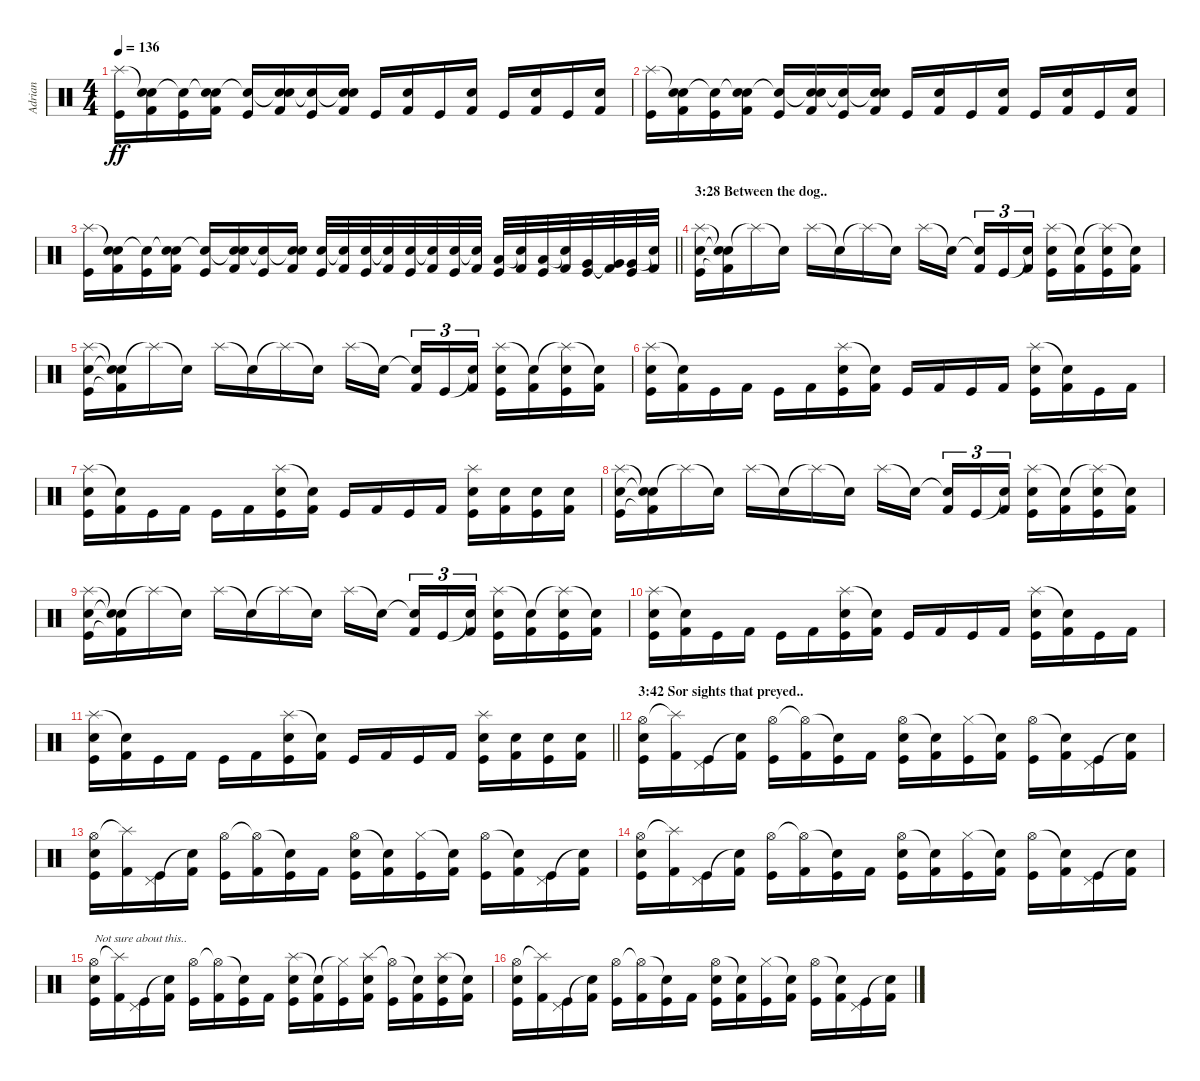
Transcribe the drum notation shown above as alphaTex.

\track ("Adrian" "Adrian") {instrument percussion}
\staff {score}
\articulation defaults
\ts (4 4)
\tempo 136
\clef neutral
\ks c
("Splash (hit)" "Kick (hit)").16{dy ff} ("Snare (hit)"{t} "Electric Snare (hit)" "Kick (hit) 2").16 ("Snare (hit)"{t} "Kick (hit)").16 ("Snare (hit)"{t} "Electric Snare (hit)" "Kick (hit) 2").16 ("Snare (hit)"{t} "Kick (hit)").16 ("Snare (hit)"{t} "Electric Snare (hit)" "Kick (hit) 2").16 ("Snare (hit)"{t} "Kick (hit)").16 ("Snare (hit)"{t} "Electric Snare (hit)" "Kick (hit) 2").16 "Kick (hit)".16 ("Electric Snare (hit)" "Kick (hit) 2").16 "Kick (hit)".16 ("Electric Snare (hit)" "Kick (hit) 2").16 "Kick (hit)".16 ("Electric Snare (hit)" "Kick (hit) 2").16 "Kick (hit)".16 ("Electric Snare (hit)" "Kick (hit) 2").16 |
("Splash (hit)" "Kick (hit)").16 ("Snare (hit)"{t} "Electric Snare (hit)" "Kick (hit) 2").16 ("Snare (hit)"{t} "Kick (hit)").16 ("Snare (hit)"{t} "Electric Snare (hit)" "Kick (hit) 2").16 ("Snare (hit)"{t} "Kick (hit)").16 ("Snare (hit)"{t} "Electric Snare (hit)" "Kick (hit) 2").16 ("Snare (hit)"{t} "Kick (hit)").16 ("Snare (hit)"{t} "Electric Snare (hit)" "Kick (hit) 2").16 "Kick (hit)".16 ("Electric Snare (hit)" "Kick (hit) 2").16 "Kick (hit)".16 ("Electric Snare (hit)" "Kick (hit) 2").16 "Kick (hit)".16 ("Electric Snare (hit)" "Kick (hit) 2").16 "Kick (hit)".16 ("Electric Snare (hit)" "Kick (hit) 2").16 |
\barLineRight lightlight
("Splash (hit)" "Kick (hit)").16 ("Snare (hit)"{t} "Electric Snare (hit)" "Kick (hit) 2").16 ("Snare (hit)"{t} "Kick (hit)").16 ("Snare (hit)"{t} "Electric Snare (hit)" "Kick (hit) 2").16 ("Snare (hit)"{t} "Kick (hit)").16 ("Snare (hit)"{t} "Electric Snare (hit)" "Kick (hit) 2").16 ("Snare (hit)"{t} "Kick (hit)").16 ("Snare (hit)"{t} "Electric Snare (hit)" "Kick (hit) 2").16 ("Electric Snare (hit)" "Kick (hit)").32 ("Electric Snare (hit)"{t} "Kick (hit) 2").32 ("Electric Snare (hit)" "Kick (hit)").32 ("Snare (hit)"{t} "Kick (hit) 2").32 ("Electric Snare (hit)" "Kick (hit)").32 ("Snare (hit)"{t} "Kick (hit) 2").32 ("Electric Snare (hit)" "Kick (hit)").32 ("Snare (hit)"{t} "Kick (hit) 2").32 ("Low Tom (hit)" "Kick (hit)").32 ("Snare (hit)"{t} "Kick (hit) 2").32 ("Low Tom (hit)" "Kick (hit)").32 ("Snare (hit)"{t} "Kick (hit) 2").32 ("Very Low Tom (hit)" "Kick (hit)").32 ("Very Low Tom (hit)"{t} "Kick (hit) 2").32 ("Very Low Tom (hit)" "Kick (hit)").32 ("Snare (hit)"{t} "Kick (hit) 2").32 |
\section ("" "3:28 Between the dog..")
("Splash (hit)" "Electric Snare (hit)" "Kick (hit)").16 ("Snare (hit)"{t} "Snare (hit)"{t} "Kick (hit) 2"{t}).16 "Splash (hit)"{t}.16 "Snare (hit)"{t}.16 "Splash (hit)".16 "Snare (hit)"{t}.16 "Splash (hit)"{t}.16 "Snare (hit)"{t}.16 "Splash (hit)".16 "Snare (hit)"{t}.16{beam splitsecondary} ("Snare (hit)"{t} "Kick (hit) 2").16{tu (3 2)} "Kick (hit)".16{tu (3 2)} ("Snare (hit)"{t} "Kick (hit) 2").16{tu (3 2)} ("Splash (hit)" "Electric Snare (hit)" "Kick (hit)").16 ("Snare (hit)"{t} "Kick (hit) 2").16 ("Splash (hit)"{t} "Electric Snare (hit)" "Kick (hit)").16 ("Snare (hit)"{t} "Kick (hit) 2").16 |
("Splash (hit)" "Electric Snare (hit)" "Kick (hit)").16 ("Snare (hit)"{t} "Snare (hit)"{t} "Kick (hit) 2"{t}).16 "Splash (hit)"{t}.16 "Snare (hit)"{t}.16 "Splash (hit)".16 "Snare (hit)"{t}.16 "Splash (hit)"{t}.16 "Snare (hit)"{t}.16 "Splash (hit)".16 "Snare (hit)"{t}.16{beam splitsecondary} ("Snare (hit)"{t} "Kick (hit) 2").16{tu (3 2)} "Kick (hit)".16{tu (3 2)} ("Snare (hit)"{t} "Kick (hit) 2").16{tu (3 2)} ("Splash (hit)" "Electric Snare (hit)" "Kick (hit)").16 ("Snare (hit)"{t} "Kick (hit) 2").16 ("Splash (hit)"{t} "Electric Snare (hit)" "Kick (hit)").16 ("Snare (hit)"{t} "Kick (hit) 2").16 |
("Splash (hit)" "Electric Snare (hit)" "Kick (hit)").16 ("Snare (hit)"{t} "Kick (hit) 2").16 "Kick (hit)".16 "Kick (hit) 2".16 "Kick (hit)".16 "Kick (hit) 2".16 ("Splash (hit)" "Electric Snare (hit)" "Kick (hit)").16 ("Snare (hit)"{t} "Kick (hit) 2").16 "Kick (hit)".16 "Kick (hit) 2".16 "Kick (hit)".16 "Kick (hit) 2".16 ("Splash (hit)" "Electric Snare (hit)" "Kick (hit)").16 ("Snare (hit)"{t} "Kick (hit) 2").16 "Kick (hit)".16 "Kick (hit) 2".16 |
("Splash (hit)" "Electric Snare (hit)" "Kick (hit)").16 ("Snare (hit)"{t} "Kick (hit) 2").16 "Kick (hit)".16 "Kick (hit) 2".16 "Kick (hit)".16 "Kick (hit) 2".16 ("Splash (hit)" "Electric Snare (hit)" "Kick (hit)").16 ("Snare (hit)"{t} "Kick (hit) 2").16 "Kick (hit)".16 "Kick (hit) 2".16 "Kick (hit)".16 "Kick (hit) 2".16 ("Splash (hit)" "Electric Snare (hit)" "Kick (hit)").16 ("Electric Snare (hit)" "Kick (hit) 2").16 ("Electric Snare (hit)" "Kick (hit)").16 ("Electric Snare (hit)" "Kick (hit) 2").16 |
("Splash (hit)" "Electric Snare (hit)" "Kick (hit)").16 ("Snare (hit)"{t} "Snare (hit)"{t} "Kick (hit) 2"{t}).16 "Splash (hit)"{t}.16 "Snare (hit)"{t}.16 "Splash (hit)".16 "Snare (hit)"{t}.16 "Splash (hit)"{t}.16 "Snare (hit)"{t}.16 "Splash (hit)".16 "Snare (hit)"{t}.16{beam splitsecondary} ("Snare (hit)"{t} "Kick (hit) 2").16{tu (3 2)} "Kick (hit)".16{tu (3 2)} ("Snare (hit)"{t} "Kick (hit) 2").16{tu (3 2)} ("Splash (hit)" "Electric Snare (hit)" "Kick (hit)").16 ("Snare (hit)"{t} "Kick (hit) 2").16 ("Splash (hit)"{t} "Electric Snare (hit)" "Kick (hit)").16 ("Snare (hit)"{t} "Kick (hit) 2").16 |
("Splash (hit)" "Electric Snare (hit)" "Kick (hit)").16 ("Snare (hit)"{t} "Snare (hit)"{t} "Kick (hit) 2"{t}).16 "Splash (hit)"{t}.16 "Snare (hit)"{t}.16 "Splash (hit)".16 "Snare (hit)"{t}.16 "Splash (hit)"{t}.16 "Snare (hit)"{t}.16 "Splash (hit)".16 "Snare (hit)"{t}.16{beam splitsecondary} ("Snare (hit)"{t} "Kick (hit) 2").16{tu (3 2)} "Kick (hit)".16{tu (3 2)} ("Snare (hit)"{t} "Kick (hit) 2").16{tu (3 2)} ("Splash (hit)" "Electric Snare (hit)" "Kick (hit)").16 ("Snare (hit)"{t} "Kick (hit) 2").16 ("Splash (hit)"{t} "Electric Snare (hit)" "Kick (hit)").16 ("Snare (hit)"{t} "Kick (hit) 2").16 |
("Splash (hit)" "Electric Snare (hit)" "Kick (hit)").16 ("Snare (hit)"{t} "Kick (hit) 2").16 "Kick (hit)".16 "Kick (hit) 2".16 "Kick (hit)".16 "Kick (hit) 2".16 ("Splash (hit)" "Electric Snare (hit)" "Kick (hit)").16 ("Snare (hit)"{t} "Kick (hit) 2").16 "Kick (hit)".16 "Kick (hit) 2".16 "Kick (hit)".16 "Kick (hit) 2".16 ("Splash (hit)" "Electric Snare (hit)" "Kick (hit)").16 ("Snare (hit)"{t} "Kick (hit) 2").16 "Kick (hit)".16 "Kick (hit) 2".16 |
\barLineRight lightlight
("Splash (hit)" "Electric Snare (hit)" "Kick (hit)").16 ("Snare (hit)"{t} "Kick (hit) 2").16 "Kick (hit)".16 "Kick (hit) 2".16 "Kick (hit)".16 "Kick (hit) 2".16 ("Splash (hit)" "Electric Snare (hit)" "Kick (hit)").16 ("Snare (hit)"{t} "Kick (hit) 2").16 "Kick (hit)".16 "Kick (hit) 2".16 "Kick (hit)".16 "Kick (hit) 2".16 ("Splash (hit)" "Electric Snare (hit)" "Kick (hit)").16 ("Electric Snare (hit)" "Kick (hit) 2").16 ("Electric Snare (hit)" "Kick (hit)").16 ("Electric Snare (hit)" "Kick (hit) 2").16 |
\section ("" "3:42 Sor sights that preyed..")
("Hi-Hat (open)" "Electric Snare (hit)" "Kick (hit)").16 ("Splash (hit)"{t} "Kick (hit) 2").16 ("Pedal Hi-Hat (hit)" "Kick (hit)").16 ("Snare (hit)"{t} "Kick (hit) 2").16 ("Hi-Hat (open)" "Kick (hit)").16 ("Hi-Hat (open)"{t} "Kick (hit) 2").16 ("Snare (hit)"{t} "Kick (hit)").16 "Kick (hit) 2".16 ("Hi-Hat (open)" "Electric Snare (hit)" "Kick (hit)").16 ("Snare (hit)"{t} "Kick (hit) 2").16 ("Hi-Hat (closed)" "Kick (hit)").16 ("Snare (hit)"{t} "Kick (hit) 2").16 ("Hi-Hat (open)" "Kick (hit)").16 ("Snare (hit)"{t} "Kick (hit) 2").16 ("Pedal Hi-Hat (hit)" "Kick (hit)").16 ("Snare (hit)"{t} "Kick (hit) 2").16 |
("Hi-Hat (open)" "Electric Snare (hit)" "Kick (hit)").16 ("Splash (hit)"{t} "Kick (hit) 2").16 ("Pedal Hi-Hat (hit)" "Kick (hit)").16 ("Snare (hit)"{t} "Kick (hit) 2").16 ("Hi-Hat (open)" "Kick (hit)").16 ("Hi-Hat (open)"{t} "Kick (hit) 2").16 ("Snare (hit)"{t} "Kick (hit)").16 "Kick (hit) 2".16 ("Hi-Hat (open)" "Electric Snare (hit)" "Kick (hit)").16 ("Snare (hit)"{t} "Kick (hit) 2").16 ("Hi-Hat (closed)" "Kick (hit)").16 ("Snare (hit)"{t} "Kick (hit) 2").16 ("Hi-Hat (open)" "Kick (hit)").16 ("Snare (hit)"{t} "Kick (hit) 2").16 ("Pedal Hi-Hat (hit)" "Kick (hit)").16 ("Snare (hit)"{t} "Kick (hit) 2").16 |
("Hi-Hat (open)" "Electric Snare (hit)" "Kick (hit)").16 ("Splash (hit)"{t} "Kick (hit) 2").16 ("Pedal Hi-Hat (hit)" "Kick (hit)").16 ("Snare (hit)"{t} "Kick (hit) 2").16 ("Hi-Hat (open)" "Kick (hit)").16 ("Hi-Hat (open)"{t} "Kick (hit) 2").16 ("Snare (hit)"{t} "Kick (hit)").16 "Kick (hit) 2".16 ("Hi-Hat (open)" "Electric Snare (hit)" "Kick (hit)").16 ("Snare (hit)"{t} "Kick (hit) 2").16 ("Hi-Hat (closed)" "Kick (hit)").16 ("Snare (hit)"{t} "Kick (hit) 2").16 ("Hi-Hat (open)" "Kick (hit)").16 ("Snare (hit)"{t} "Kick (hit) 2").16 ("Pedal Hi-Hat (hit)" "Kick (hit)").16 ("Snare (hit)"{t} "Kick (hit) 2").16 |
("Hi-Hat (open)" "Electric Snare (hit)" "Kick (hit)").16{txt "Not sure about this.."} ("Splash (hit)"{t} "Kick (hit) 2").16 ("Pedal Hi-Hat (hit)" "Kick (hit)").16 ("Snare (hit)"{t} "Kick (hit) 2").16 ("Hi-Hat (open)" "Kick (hit)").16 ("Hi-Hat (open)"{t} "Kick (hit) 2").16 ("Snare (hit)"{t} "Kick (hit)").16 "Kick (hit) 2".16 ("Splash (hit)" "Electric Snare (hit)" "Kick (hit)").16 ("Snare (hit)"{t} "Kick (hit) 2").16 ("Hi-Hat (closed)"{t} "Kick (hit)").16 ("Splash (hit)" "Electric Snare (hit)" "Kick (hit) 2").16 ("Hi-Hat (open)"{t} "Kick (hit)").16 ("Snare (hit)"{t} "Kick (hit) 2").16 ("Splash (hit)" "Electric Snare (hit)" "Kick (hit)").16 ("Snare (hit)"{t} "Kick (hit) 2").16 |
("Hi-Hat (open)" "Electric Snare (hit)" "Kick (hit)").16 ("Splash (hit)"{t} "Kick (hit) 2").16 ("Pedal Hi-Hat (hit)" "Kick (hit)").16 ("Snare (hit)"{t} "Kick (hit) 2").16 ("Hi-Hat (open)" "Kick (hit)").16 ("Hi-Hat (open)"{t} "Kick (hit) 2").16 ("Snare (hit)"{t} "Kick (hit)").16 "Kick (hit) 2".16 ("Hi-Hat (open)" "Electric Snare (hit)" "Kick (hit)").16 ("Snare (hit)"{t} "Kick (hit) 2").16 ("Hi-Hat (closed)" "Kick (hit)").16 ("Snare (hit)"{t} "Kick (hit) 2").16 ("Hi-Hat (open)" "Kick (hit)").16 ("Snare (hit)"{t} "Kick (hit) 2").16 ("Pedal Hi-Hat (hit)" "Kick (hit)").16 ("Snare (hit)"{t} "Kick (hit) 2").16
